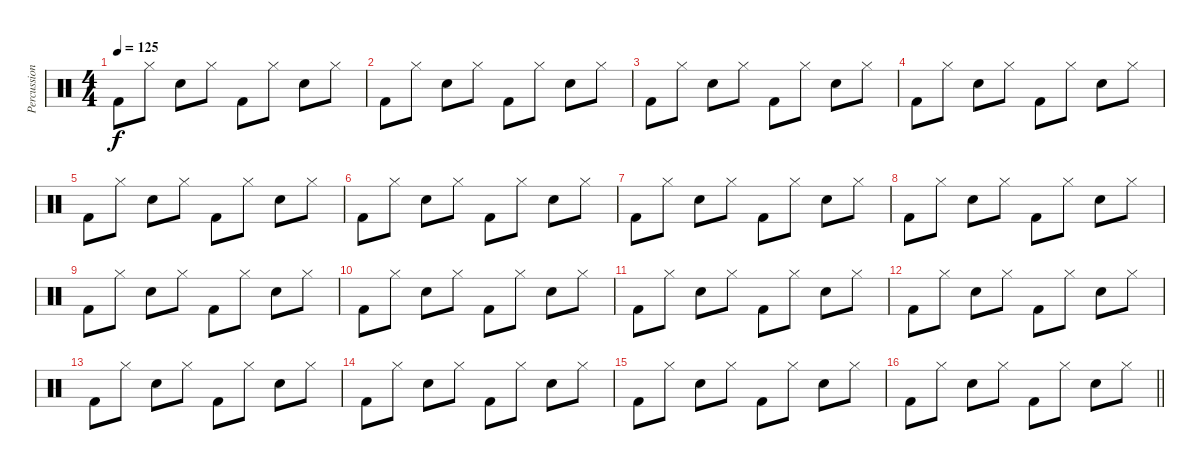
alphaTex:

\track ("Percussion" "Percussion") {instrument percussion}
\staff {score}
\articulation defaults
\ts (4 4)
\tempo 125
\clef neutral
\ks c "Kick (hit) 2".8{dy f} "Hi-Hat (closed)".8 "Electric Snare (hit)".8 "Hi-Hat (closed)".8 "Kick (hit) 2".8 "Hi-Hat (closed)".8 "Electric Snare (hit)".8 "Hi-Hat (closed)".8
|
"Kick (hit) 2".8 "Hi-Hat (closed)".8 "Electric Snare (hit)".8 "Hi-Hat (closed)".8 "Kick (hit) 2".8 "Hi-Hat (closed)".8 "Electric Snare (hit)".8 "Hi-Hat (closed)".8 |
"Kick (hit) 2".8 "Hi-Hat (closed)".8 "Electric Snare (hit)".8 "Hi-Hat (closed)".8 "Kick (hit) 2".8 "Hi-Hat (closed)".8 "Electric Snare (hit)".8 "Hi-Hat (closed)".8 |
"Kick (hit) 2".8 "Hi-Hat (closed)".8 "Electric Snare (hit)".8 "Hi-Hat (closed)".8 "Kick (hit) 2".8 "Hi-Hat (closed)".8 "Electric Snare (hit)".8 "Hi-Hat (closed)".8 |
"Kick (hit) 2".8 "Hi-Hat (closed)".8 "Electric Snare (hit)".8 "Hi-Hat (closed)".8 "Kick (hit) 2".8 "Hi-Hat (closed)".8 "Electric Snare (hit)".8 "Hi-Hat (closed)".8 |
"Kick (hit) 2".8 "Hi-Hat (closed)".8 "Electric Snare (hit)".8 "Hi-Hat (closed)".8 "Kick (hit) 2".8 "Hi-Hat (closed)".8 "Electric Snare (hit)".8 "Hi-Hat (closed)".8 |
"Kick (hit) 2".8 "Hi-Hat (closed)".8 "Electric Snare (hit)".8 "Hi-Hat (closed)".8 "Kick (hit) 2".8 "Hi-Hat (closed)".8 "Electric Snare (hit)".8 "Hi-Hat (closed)".8 |
"Kick (hit) 2".8 "Hi-Hat (closed)".8 "Electric Snare (hit)".8 "Hi-Hat (closed)".8 "Kick (hit) 2".8 "Hi-Hat (closed)".8 "Electric Snare (hit)".8 "Hi-Hat (closed)".8 |
"Kick (hit) 2".8 "Hi-Hat (closed)".8 "Electric Snare (hit)".8 "Hi-Hat (closed)".8 "Kick (hit) 2".8 "Hi-Hat (closed)".8 "Electric Snare (hit)".8 "Hi-Hat (closed)".8 |
"Kick (hit) 2".8 "Hi-Hat (closed)".8 "Electric Snare (hit)".8 "Hi-Hat (closed)".8 "Kick (hit) 2".8 "Hi-Hat (closed)".8 "Electric Snare (hit)".8 "Hi-Hat (closed)".8 |
"Kick (hit) 2".8 "Hi-Hat (closed)".8 "Electric Snare (hit)".8 "Hi-Hat (closed)".8 "Kick (hit) 2".8 "Hi-Hat (closed)".8 "Electric Snare (hit)".8 "Hi-Hat (closed)".8 |
"Kick (hit) 2".8 "Hi-Hat (closed)".8 "Electric Snare (hit)".8 "Hi-Hat (closed)".8 "Kick (hit) 2".8 "Hi-Hat (closed)".8 "Electric Snare (hit)".8 "Hi-Hat (closed)".8 |
"Kick (hit) 2".8 "Hi-Hat (closed)".8 "Electric Snare (hit)".8 "Hi-Hat (closed)".8 "Kick (hit) 2".8 "Hi-Hat (closed)".8 "Electric Snare (hit)".8 "Hi-Hat (closed)".8 |
"Kick (hit) 2".8 "Hi-Hat (closed)".8 "Electric Snare (hit)".8 "Hi-Hat (closed)".8 "Kick (hit) 2".8 "Hi-Hat (closed)".8 "Electric Snare (hit)".8 "Hi-Hat (closed)".8 |
"Kick (hit) 2".8 "Hi-Hat (closed)".8 "Electric Snare (hit)".8 "Hi-Hat (closed)".8 "Kick (hit) 2".8 "Hi-Hat (closed)".8 "Electric Snare (hit)".8 "Hi-Hat (closed)".8 |
\barLineRight lightlight "Kick (hit) 2".8 "Hi-Hat (closed)".8 "Electric Snare (hit)".8 "Hi-Hat (closed)".8 "Kick (hit) 2".8 "Hi-Hat (closed)".8 "Electric Snare (hit)".8 "Hi-Hat (closed)".8
